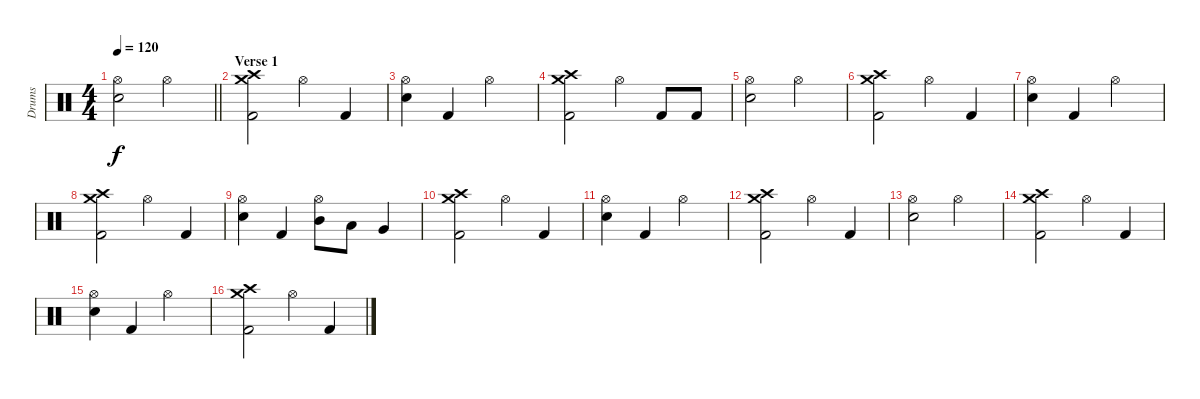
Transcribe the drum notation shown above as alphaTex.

\track ("Drums" "Drums") {instrument percussion}
\staff {score}
\articulation defaults
\ts (4 4)
\tempo 120
\clef neutral
\barLineRight lightlight
\ks c
("Hi-Hat (open)" "Snare (hit) 2").2{dy f} "Hi-Hat (open)".2 |
\section ("" "Verse 1")
("Crash high (hit)" "Crash medium (hit)" "Kick (hit) 2").2 "Hi-Hat (open)".4 "Kick (hit) 2".4 |
("Hi-Hat (open)" "Snare (hit) 2").4 "Kick (hit) 2".4 "Hi-Hat (open)".2 |
("Crash high (hit)" "Crash medium (hit)" "Kick (hit) 2").2 "Hi-Hat (open)".4 "Kick (hit) 2".8 "Kick (hit) 2".8 |
("Hi-Hat (open)" "Snare (hit) 2").2 "Hi-Hat (open)".2 |
("Crash high (hit)" "Crash medium (hit)" "Kick (hit) 2").2 "Hi-Hat (open)".4 "Kick (hit) 2".4 |
("Hi-Hat (open)" "Snare (hit) 2").4 "Kick (hit) 2".4 "Hi-Hat (open)".2 |
("Crash high (hit)" "Crash medium (hit)" "Kick (hit) 2").2 "Hi-Hat (open)".4 "Kick (hit) 2".4 |
("Hi-Hat (open)" "Snare (hit) 2").4 "Kick (hit) 2".4 ("Hi-Hat (open)" "Mid Tom (hit)").8 "Low Tom (hit)".8 "Very Low Tom (hit)".4 |
("Crash high (hit)" "Crash medium (hit)" "Kick (hit) 2").2 "Hi-Hat (open)".4 "Kick (hit) 2".4 |
("Hi-Hat (open)" "Snare (hit) 2").4 "Kick (hit) 2".4 "Hi-Hat (open)".2 |
("Crash high (hit)" "Crash medium (hit)" "Kick (hit) 2").2 "Hi-Hat (open)".4 "Kick (hit) 2".4 |
("Hi-Hat (open)" "Snare (hit) 2").2 "Hi-Hat (open)".2 |
("Crash high (hit)" "Crash medium (hit)" "Kick (hit) 2").2 "Hi-Hat (open)".4 "Kick (hit) 2".4 |
("Hi-Hat (open)" "Snare (hit) 2").4 "Kick (hit) 2".4 "Hi-Hat (open)".2 |
("Crash high (hit)" "Crash medium (hit)" "Kick (hit) 2").2 "Hi-Hat (open)".4 "Kick (hit) 2".4
